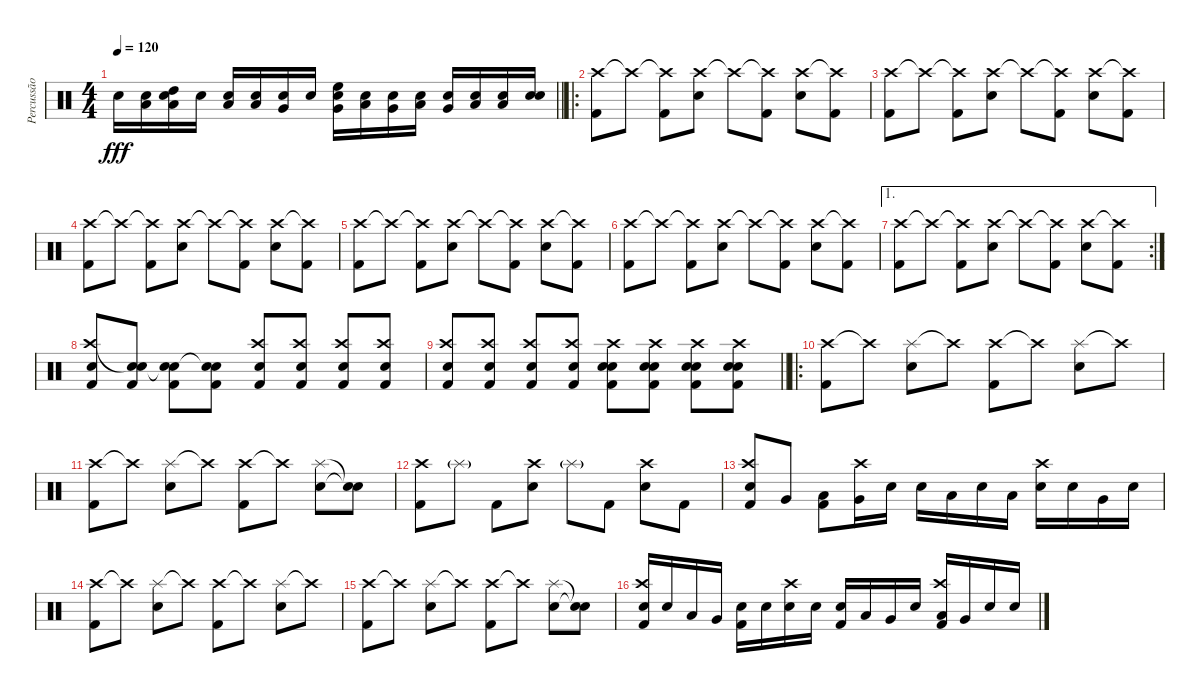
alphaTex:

\track ("Percussão" "Percussão") {instrument percussion}
\staff {score}
\articulation defaults
\ts (4 4)
\tempo 120
\clef neutral
\barLineRight lightlight
\ks c "Electric Snare (hit)".16{dy fff}
("Low Tom (hit)" "Electric Snare (hit)").16 ("Low Floor Tom (hit)" "High Tom (hit)" "Electric Snare (hit)").16 "Electric Snare (hit)".16 ("Low Tom (hit)" "Electric Snare (hit)").16 ("Low Floor Tom (hit)" "Electric Snare (hit)").16 ("Very Low Tom (hit)" "Electric Snare (hit)").16 "Electric Snare (hit)".16 ("Very Low Tom (hit)" "High Floor Tom (hit)" "Electric Snare (hit)").16 ("Low Floor Tom (hit)" "Electric Snare (hit)").16 ("Very Low Tom (hit)" "Electric Snare (hit)").16 ("Low Floor Tom (hit)" "Electric Snare (hit)").16 ("Very Low Tom (hit)" "Electric Snare (hit)").16 ("Low Floor Tom (hit)" "Electric Snare (hit)").16 ("Low Floor Tom (hit)" "Electric Snare (hit)").16 ("Electric Snare (hit)" "Electric Snare (hit)").16 |
\ro
("Crash high (hit)" "Kick (hit) 2").8 "Crash high (hit)"{t}.8 ("Crash high (hit)"{t} "Kick (hit) 2").8 ("Crash high (hit)" "Electric Snare (hit)").8 "Crash high (hit)"{t}.8 ("Crash high (hit)"{t} "Kick (hit) 2").8 ("Crash high (hit)" "Electric Snare (hit)").8 ("Crash high (hit)"{t} "Kick (hit) 2").8 |
("Crash high (hit)" "Kick (hit) 2").8 "Crash high (hit)"{t}.8 ("Crash high (hit)"{t} "Kick (hit) 2").8 ("Crash high (hit)" "Electric Snare (hit)").8 "Crash high (hit)"{t}.8 ("Crash high (hit)"{t} "Kick (hit) 2").8 ("Crash high (hit)" "Electric Snare (hit)").8 ("Crash high (hit)"{t} "Kick (hit) 2").8 |
("Crash high (hit)" "Kick (hit) 2").8 "Crash high (hit)"{t}.8 ("Crash high (hit)"{t} "Kick (hit) 2").8 ("Crash high (hit)" "Electric Snare (hit)").8 "Crash high (hit)"{t}.8 ("Crash high (hit)"{t} "Kick (hit) 2").8 ("Crash high (hit)" "Electric Snare (hit)").8 ("Crash high (hit)"{t} "Kick (hit) 2").8 |
("Crash high (hit)" "Kick (hit) 2").8 "Crash high (hit)"{t}.8 ("Crash high (hit)"{t} "Kick (hit) 2").8 ("Crash high (hit)" "Electric Snare (hit)").8 "Crash high (hit)"{t}.8 ("Crash high (hit)"{t} "Kick (hit) 2").8 ("Crash high (hit)" "Electric Snare (hit)").8 ("Crash high (hit)"{t} "Kick (hit) 2").8 |
("Crash high (hit)" "Kick (hit) 2").8 "Crash high (hit)"{t}.8 ("Crash high (hit)"{t} "Kick (hit) 2").8 ("Crash high (hit)" "Electric Snare (hit)").8 "Crash high (hit)"{t}.8 ("Crash high (hit)"{t} "Kick (hit) 2").8 ("Crash high (hit)" "Electric Snare (hit)").8 ("Crash high (hit)"{t} "Kick (hit) 2").8 |
\ae 1
\rc 2
("Crash high (hit)" "Kick (hit) 2").8 "Crash high (hit)"{t}.8 ("Crash high (hit)"{t} "Kick (hit) 2").8 ("Crash high (hit)" "Electric Snare (hit)").8 "Crash high (hit)"{t}.8 ("Crash high (hit)"{t} "Kick (hit) 2").8 ("Crash high (hit)" "Electric Snare (hit)").8 ("Crash high (hit)"{t} "Kick (hit) 2").8 |
("Crash high (hit)" "Electric Snare (hit)" "Kick (hit) 2").8 ("Snare (hit)"{t} "Electric Snare (hit)" "Kick (hit) 2").8 ("Snare (hit)"{t} "Electric Snare (hit)" "Kick (hit) 2").8 ("Snare (hit)"{t} "Electric Snare (hit)" "Kick (hit) 2").8 ("Crash high (hit)" "Electric Snare (hit)" "Kick (hit) 2").8 ("Crash high (hit)" "Electric Snare (hit)" "Kick (hit) 2").8 ("Crash high (hit)" "Electric Snare (hit)" "Kick (hit) 2").8 ("Crash high (hit)" "Electric Snare (hit)" "Kick (hit) 2").8 |
\barLineRight lightlight
("Crash high (hit)" "Electric Snare (hit)" "Kick (hit) 2").8 ("Crash high (hit)" "Electric Snare (hit)" "Kick (hit) 2").8 ("Crash high (hit)" "Electric Snare (hit)" "Kick (hit) 2").8 ("Crash high (hit)" "Electric Snare (hit)" "Kick (hit) 2").8 ("Crash high (hit)" "Snare (hit) 2" "Electric Snare (hit)" "Kick (hit) 2").8 ("Crash high (hit)" "Snare (hit) 2" "Electric Snare (hit)" "Kick (hit) 2").8 ("Crash high (hit)" "Snare (hit) 2" "Electric Snare (hit)" "Kick (hit) 2").8 ("Crash high (hit)" "Snare (hit) 2" "Electric Snare (hit)" "Kick (hit) 2").8 |
\ro
("Crash high (hit)" "Kick (hit) 2").8 "Crash high (hit)"{t}.8 ("Splash (hit)" "Electric Snare (hit)").8 "Crash high (hit)"{t}.8 ("Crash high (hit)" "Kick (hit) 2").8 "Crash high (hit)"{t}.8 ("Splash (hit)" "Electric Snare (hit)").8 "Crash high (hit)"{t}.8 |
("Crash high (hit)" "Kick (hit) 2").8 "Crash high (hit)"{t}.8 ("Splash (hit)" "Electric Snare (hit)").8 "Crash high (hit)"{t}.8 ("Crash high (hit)" "Kick (hit) 2").8 "Crash high (hit)"{t}.8 ("Splash (hit)" "Electric Snare (hit)").8 ("Snare (hit)"{t} "Snare (hit)"{t}).8 |
("Crash high (hit)" "Kick (hit) 2").8 "Splash (hit)"{g}.8 "Kick (hit) 2".8 ("Crash high (hit)" "Electric Snare (hit)").8 "Splash (hit)"{g}.8 "Kick (hit) 2".8 ("Crash high (hit)" "Electric Snare (hit)").8 "Kick (hit) 2".8 |
("Crash high (hit)" "Electric Snare (hit)" "Kick (hit) 2").8 "Very Low Tom (hit)".8 ("Low Floor Tom (hit)" "Kick (hit) 2").8 ("Crash high (hit)" "Very Low Tom (hit)").16 "Electric Snare (hit)".16 "Electric Snare (hit)".16 "Low Tom (hit)".16 "Electric Snare (hit)".16 "Low Floor Tom (hit)".16 ("Crash high (hit)" "Electric Snare (hit)").16 "Electric Snare (hit)".16 "Very Low Tom (hit)".16 "Electric Snare (hit)".16 |
("Crash high (hit)" "Kick (hit) 2").8 "Crash high (hit)"{t}.8 ("Splash (hit)" "Electric Snare (hit)").8 "Crash high (hit)"{t}.8 ("Crash high (hit)" "Kick (hit) 2").8 "Crash high (hit)"{t}.8 ("Splash (hit)" "Electric Snare (hit)").8 "Crash high (hit)"{t}.8 |
("Crash high (hit)" "Kick (hit) 2").8 "Crash high (hit)"{t}.8 ("Splash (hit)" "Electric Snare (hit)").8 "Crash high (hit)"{t}.8 ("Crash high (hit)" "Kick (hit) 2").8 "Crash high (hit)"{t}.8 ("Splash (hit)" "Electric Snare (hit)").8 ("Snare (hit)"{t} "Snare (hit)"{t}).8 |
("Crash high (hit)" "Electric Snare (hit)" "Kick (hit) 2").16 "Electric Snare (hit)".16 "Low Tom (hit)".16 "Very Low Tom (hit)".16 ("Electric Snare (hit)" "Kick (hit) 2").16 "Electric Snare (hit)".16 ("Crash high (hit)" "Electric Snare (hit)").16 "Electric Snare (hit)".16 ("Electric Snare (hit)" "Kick (hit) 2").16 "Low Tom (hit)".16 "Very Low Tom (hit)".16 "Electric Snare (hit)".16 ("Crash high (hit)" "Low Tom (hit)" "Kick (hit) 2").16 "Very Low Tom (hit)".16 "Electric Snare (hit)".16 "Electric Snare (hit)".16
